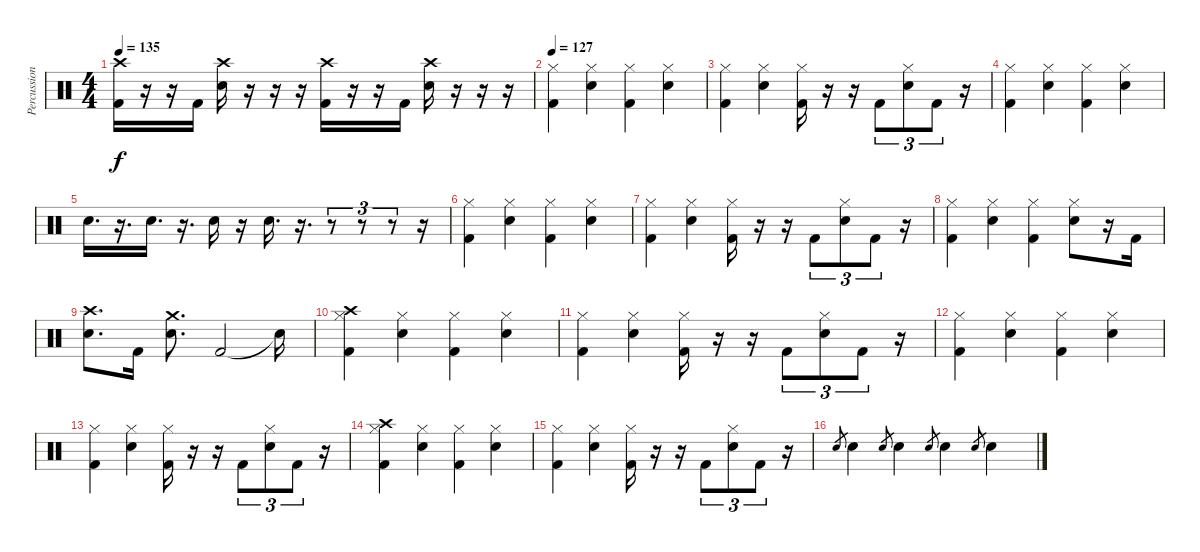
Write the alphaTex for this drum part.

\track ("Percussions" "Percussion") {instrument percussion}
\staff {score}
\articulation defaults
\ts (4 4)
\tempo 135
\clef neutral
\ks c
("Crash high (hit)" "Kick (hit) 2").16{dy f} r.16 r.16 "Kick (hit) 2".16 ("Crash high (hit)" "Electric Snare (hit)").16 r.16 r.16 r.16 ("Crash high (hit)" "Kick (hit) 2").16 r.16 r.16 "Kick (hit) 2".16 ("Crash high (hit)" "Electric Snare (hit)").16 r.16 r.16 r.16 |
\tempo 127
("Hi-Hat (closed)" "Kick (hit) 2").4 ("Hi-Hat (closed)" "Electric Snare (hit)").4 ("Hi-Hat (closed)" "Kick (hit) 2").4 ("Hi-Hat (closed)" "Electric Snare (hit)").4 |
("Hi-Hat (closed)" "Kick (hit) 2").4 ("Hi-Hat (closed)" "Electric Snare (hit)").4 ("Hi-Hat (closed)" "Kick (hit) 2").16 r.16 r.16 "Kick (hit) 2".8{tu (3 2)} ("Hi-Hat (closed)" "Electric Snare (hit)").8{tu (3 2)} "Kick (hit) 2".8{tu (3 2)} r.16 |
("Hi-Hat (closed)" "Kick (hit) 2").4 ("Hi-Hat (closed)" "Electric Snare (hit)").4 ("Hi-Hat (closed)" "Kick (hit) 2").4 ("Hi-Hat (closed)" "Electric Snare (hit)").4 |
"Electric Snare (hit)".16{d} r.16{d} "Electric Snare (hit)".16{d} r.16{d} "Electric Snare (hit)".16 r.16 "Electric Snare (hit)".16{d} r.16{d} r.8{tu (3 2)} r.8{tu (3 2)} r.8{tu (3 2)} r.16 |
("Hi-Hat (closed)" "Kick (hit) 2").4 ("Hi-Hat (closed)" "Electric Snare (hit)").4 ("Hi-Hat (closed)" "Kick (hit) 2").4 ("Hi-Hat (closed)" "Electric Snare (hit)").4 |
("Hi-Hat (closed)" "Kick (hit) 2").4 ("Hi-Hat (closed)" "Electric Snare (hit)").4 ("Hi-Hat (closed)" "Kick (hit) 2").16 r.16 r.16 "Kick (hit) 2".8{tu (3 2)} ("Hi-Hat (closed)" "Electric Snare (hit)").8{tu (3 2)} "Kick (hit) 2".8{tu (3 2)} r.16 |
("Hi-Hat (closed)" "Kick (hit) 2").4 ("Hi-Hat (closed)" "Electric Snare (hit)").4 ("Hi-Hat (closed)" "Kick (hit) 2").4 ("Hi-Hat (closed)" "Electric Snare (hit)").8 r.16 "Kick (hit) 2".16 |
("Crash high (hit)" "Electric Snare (hit)").8{d} "Kick (hit) 2".16 ("Crash medium (hit)" "Electric Snare (hit)").8{d} "Kick (hit) 2".2 "Snare (hit)"{t}.16 |
("Crash high (hit)" "Hi-Hat (closed)" "Kick (hit) 2").4 ("Hi-Hat (closed)" "Electric Snare (hit)").4 ("Hi-Hat (closed)" "Kick (hit) 2").4 ("Hi-Hat (closed)" "Electric Snare (hit)").4 |
("Hi-Hat (closed)" "Kick (hit) 2").4 ("Hi-Hat (closed)" "Electric Snare (hit)").4 ("Hi-Hat (closed)" "Kick (hit) 2").16 r.16 r.16 "Kick (hit) 2".8{tu (3 2)} ("Hi-Hat (closed)" "Electric Snare (hit)").8{tu (3 2)} "Kick (hit) 2".8{tu (3 2)} r.16 |
("Hi-Hat (closed)" "Kick (hit) 2").4 ("Hi-Hat (closed)" "Electric Snare (hit)").4 ("Hi-Hat (closed)" "Kick (hit) 2").4 ("Hi-Hat (closed)" "Electric Snare (hit)").4 |
("Hi-Hat (closed)" "Kick (hit) 2").4 ("Hi-Hat (closed)" "Electric Snare (hit)").4 ("Hi-Hat (closed)" "Kick (hit) 2").16 r.16 r.16 "Kick (hit) 2".8{tu (3 2)} ("Hi-Hat (closed)" "Electric Snare (hit)").8{tu (3 2)} "Kick (hit) 2".8{tu (3 2)} r.16 |
("Crash high (hit)" "Hi-Hat (closed)" "Kick (hit) 2").4 ("Hi-Hat (closed)" "Electric Snare (hit)").4 ("Hi-Hat (closed)" "Kick (hit) 2").4 ("Hi-Hat (closed)" "Electric Snare (hit)").4 |
("Hi-Hat (closed)" "Kick (hit) 2").4 ("Hi-Hat (closed)" "Electric Snare (hit)").4 ("Hi-Hat (closed)" "Kick (hit) 2").16 r.16 r.16 "Kick (hit) 2".8{tu (3 2)} ("Hi-Hat (closed)" "Electric Snare (hit)").8{tu (3 2)} "Kick (hit) 2".8{tu (3 2)} r.16 |
"Electric Snare (hit)".8{gr} "Electric Snare (hit)".4 "Electric Snare (hit)".8{gr} "Electric Snare (hit)".4 "Electric Snare (hit)".8{gr} "Electric Snare (hit)".4 "Electric Snare (hit)".8{gr} "Electric Snare (hit)".4
